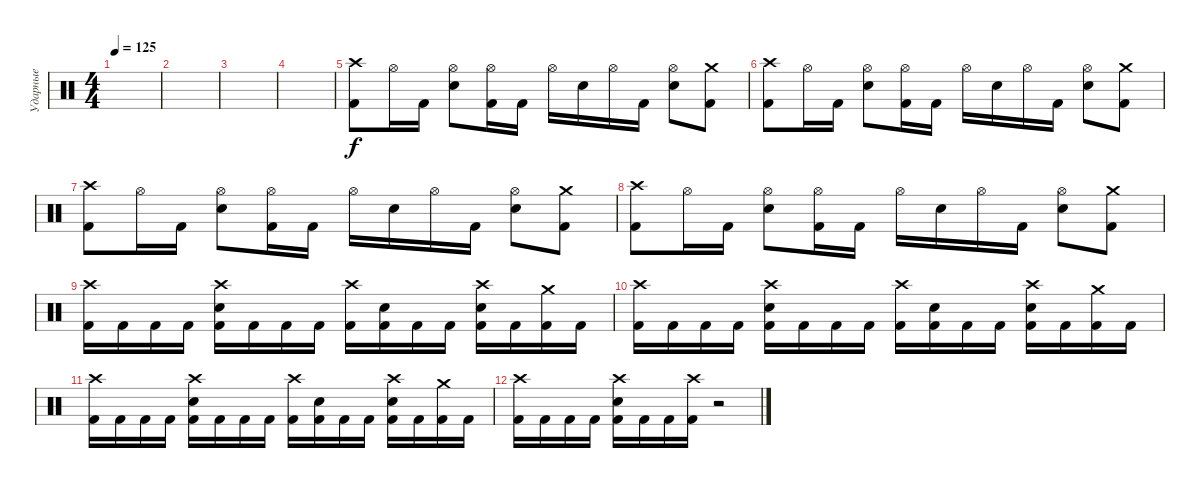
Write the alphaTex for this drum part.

\track ("Ударные" "Ударные") {instrument percussion}
\staff {score}
\articulation defaults
\ts (4 4)
\tempo 125
\clef neutral
\ks c
|
|
|
|
("Crash high (hit)" "Kick (hit) 2").8 "Hi-Hat (open)".16 "Kick (hit) 2".16 ("Hi-Hat (open)" "Electric Snare (hit)").8 ("Hi-Hat (open)" "Kick (hit) 2").16 "Kick (hit) 2".16 "Hi-Hat (open)".16 "Electric Snare (hit)".16 "Hi-Hat (open)".16 "Kick (hit) 2".16 ("Hi-Hat (open)" "Electric Snare (hit)").8 ("Crash medium (hit)" "Kick (hit) 2").8 |
("Crash high (hit)" "Kick (hit) 2").8 "Hi-Hat (open)".16 "Kick (hit) 2".16 ("Hi-Hat (open)" "Electric Snare (hit)").8 ("Hi-Hat (open)" "Kick (hit) 2").16 "Kick (hit) 2".16 "Hi-Hat (open)".16 "Electric Snare (hit)".16 "Hi-Hat (open)".16 "Kick (hit) 2".16 ("Hi-Hat (open)" "Electric Snare (hit)").8 ("Crash medium (hit)" "Kick (hit) 2").8 |
("Crash high (hit)" "Kick (hit) 2").8 "Hi-Hat (open)".16 "Kick (hit) 2".16 ("Hi-Hat (open)" "Electric Snare (hit)").8 ("Hi-Hat (open)" "Kick (hit) 2").16 "Kick (hit) 2".16 "Hi-Hat (open)".16 "Electric Snare (hit)".16 "Hi-Hat (open)".16 "Kick (hit) 2".16 ("Hi-Hat (open)" "Electric Snare (hit)").8 ("Crash medium (hit)" "Kick (hit) 2").8 |
("Crash high (hit)" "Kick (hit) 2").8 "Hi-Hat (open)".16 "Kick (hit) 2".16 ("Hi-Hat (open)" "Electric Snare (hit)").8 ("Hi-Hat (open)" "Kick (hit) 2").16 "Kick (hit) 2".16 "Hi-Hat (open)".16 "Electric Snare (hit)".16 "Hi-Hat (open)".16 "Kick (hit) 2".16 ("Hi-Hat (open)" "Electric Snare (hit)").8 ("Crash medium (hit)" "Kick (hit) 2").8 |
("Crash high (hit)" "Kick (hit) 2").16 "Kick (hit) 2".16 "Kick (hit) 2".16 "Kick (hit) 2".16 ("Crash high (hit)" "Electric Snare (hit)" "Kick (hit) 2").16 "Kick (hit) 2".16 "Kick (hit) 2".16 "Kick (hit) 2".16 ("Crash high (hit)" "Kick (hit) 2").16 ("Electric Snare (hit)" "Kick (hit) 2").16 "Kick (hit) 2".16 "Kick (hit) 2".16 ("Crash high (hit)" "Electric Snare (hit)" "Kick (hit) 2").16 "Kick (hit) 2".16 ("Crash medium (hit)" "Kick (hit) 2").16 "Kick (hit) 2".16 |
("Crash high (hit)" "Kick (hit) 2").16 "Kick (hit) 2".16 "Kick (hit) 2".16 "Kick (hit) 2".16 ("Crash high (hit)" "Electric Snare (hit)" "Kick (hit) 2").16 "Kick (hit) 2".16 "Kick (hit) 2".16 "Kick (hit) 2".16 ("Crash high (hit)" "Kick (hit) 2").16 ("Electric Snare (hit)" "Kick (hit) 2").16 "Kick (hit) 2".16 "Kick (hit) 2".16 ("Crash high (hit)" "Electric Snare (hit)" "Kick (hit) 2").16 "Kick (hit) 2".16 ("Crash medium (hit)" "Kick (hit) 2").16 "Kick (hit) 2".16 |
("Crash high (hit)" "Kick (hit) 2").16 "Kick (hit) 2".16 "Kick (hit) 2".16 "Kick (hit) 2".16 ("Crash high (hit)" "Electric Snare (hit)" "Kick (hit) 2").16 "Kick (hit) 2".16 "Kick (hit) 2".16 "Kick (hit) 2".16 ("Crash high (hit)" "Kick (hit) 2").16 ("Electric Snare (hit)" "Kick (hit) 2").16 "Kick (hit) 2".16 "Kick (hit) 2".16 ("Crash high (hit)" "Electric Snare (hit)" "Kick (hit) 2").16 "Kick (hit) 2".16 ("Crash medium (hit)" "Kick (hit) 2").16 "Kick (hit) 2".16 |
("Crash high (hit)" "Kick (hit) 2").16 "Kick (hit) 2".16 "Kick (hit) 2".16 "Kick (hit) 2".16 ("Crash high (hit)" "Electric Snare (hit)" "Kick (hit) 2").16 "Kick (hit) 2".16 "Kick (hit) 2".16 ("Crash high (hit)" "Kick (hit) 2").16 r.2
